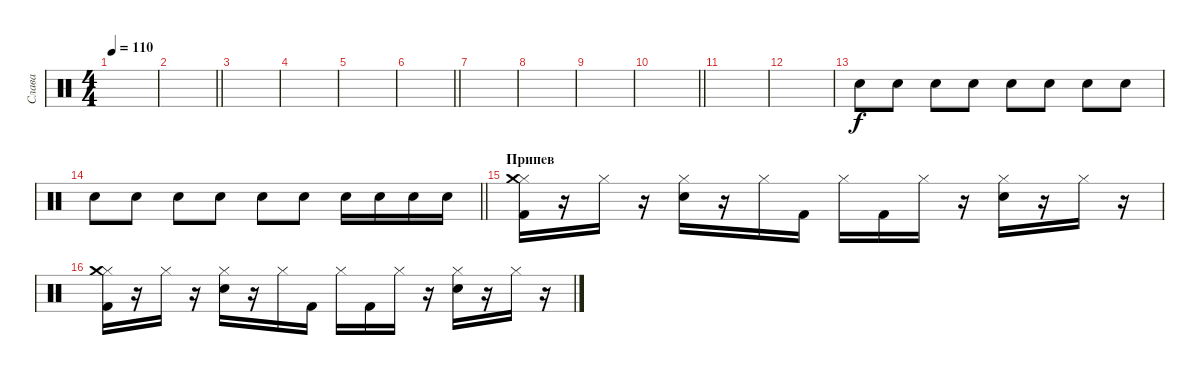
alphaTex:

\track ("Слава" "Слава") {instrument percussion}
\staff {score}
\articulation defaults
\ts (4 4)
\tempo 110
\clef neutral
\ks c
|
\barLineRight lightlight
|
|
|
|
\barLineRight lightlight
|
|
|
|
\barLineRight lightlight
|
|
|
"Electric Snare (hit)".8{volume 7} "Electric Snare (hit)".8 "Electric Snare (hit)".8 "Electric Snare (hit)".8 "Electric Snare (hit)".8{volume 9} "Electric Snare (hit)".8 "Electric Snare (hit)".8 "Electric Snare (hit)".8 |
\barLineRight lightlight "Electric Snare (hit)".8{volume 12} "Electric Snare (hit)".8 "Electric Snare (hit)".8 "Electric Snare (hit)".8 "Electric Snare (hit)".8{volume 16} "Electric Snare (hit)".8 "Electric Snare (hit)".16 "Electric Snare (hit)".16 "Electric Snare (hit)".16 "Electric Snare (hit)".16
|
\section ("" "Припев")
("Hi-Hat (closed)" "Crash medium (hit)" "Kick (hit) 2").16 r.16 "Hi-Hat (closed)".16 r.16 ("Hi-Hat (closed)" "Electric Snare (hit)").16 r.16 "Hi-Hat (closed)".16 "Kick (hit) 2".16 "Hi-Hat (closed)".16 "Kick (hit) 2".16 "Hi-Hat (closed)".16 r.16 ("Hi-Hat (closed)" "Electric Snare (hit)").16 r.16 "Hi-Hat (closed)".16 r.16 |
("Hi-Hat (closed)" "Crash medium (hit)" "Kick (hit) 2").16 r.16 "Hi-Hat (closed)".16 r.16 ("Hi-Hat (closed)" "Electric Snare (hit)").16 r.16 "Hi-Hat (closed)".16 "Kick (hit) 2".16 "Hi-Hat (closed)".16 "Kick (hit) 2".16 "Hi-Hat (closed)".16 r.16 ("Hi-Hat (closed)" "Electric Snare (hit)").16 r.16 "Hi-Hat (closed)".16 r.16
